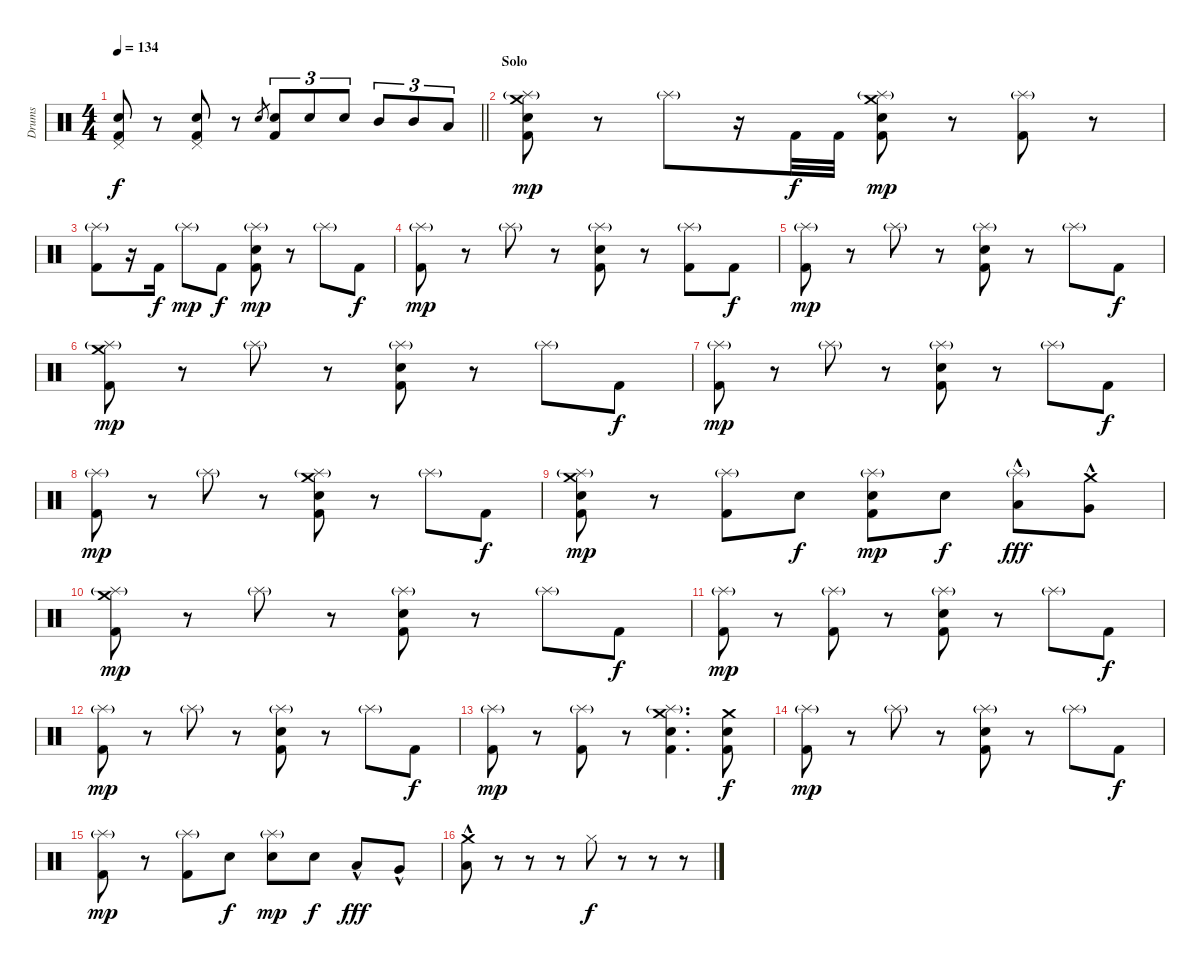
\track ("Drums" "Drums") {instrument percussion}
\staff {score}
\articulation defaults
\ts (4 4)
\tempo 134
\clef neutral
\barLineRight lightlight
\ks aminor
("Pedal Hi-Hat (hit)" "Snare (hit) 2" "Kick (hit) 2").8{dy f} r.8 ("Pedal Hi-Hat (hit)" "Snare (hit) 2" "Kick (hit) 2").8 r.8 "Snare (hit) 2".8{gr} ("Snare (hit) 2" "Kick (hit) 2").8{tu (3 2)} "Snare (hit) 2".8{tu (3 2)} "Snare (hit) 2".8{tu (3 2)} "Mid Tom (hit)".8{tu (3 2)} "Mid Tom (hit)".8{tu (3 2)} "Low Tom (hit)".8{tu (3 2)} |
\section ("" "Solo")
("Crash medium (hit)" "Splash (hit)"{g} "Snare (hit) 2" "Kick (hit) 2").8{dy mp} r.8 "Splash (hit)"{g}.8 r.16 "Kick (hit) 2".32{dy f} "Kick (hit) 2".32 ("Crash medium (hit)" "Splash (hit)"{g} "Snare (hit) 2" "Kick (hit) 2").8{dy mp} r.8 ("Splash (hit)"{g} "Kick (hit) 2").8 r.8 |
("Splash (hit)"{g} "Kick (hit) 2").8 r.16 "Kick (hit) 2".16{dy f} "Splash (hit)"{g}.8{dy mp} "Kick (hit) 2".8{dy f} ("Splash (hit)"{g} "Snare (hit) 2" "Kick (hit) 2").8{dy mp} r.8 "Splash (hit)"{g}.8 "Kick (hit) 2".8{dy f} |
("Splash (hit)"{g} "Kick (hit) 2").8{dy mp} r.8 "Splash (hit)"{g}.8 r.8 ("Splash (hit)"{g} "Snare (hit) 2" "Kick (hit) 2").8 r.8 ("Splash (hit)"{g} "Kick (hit) 2").8 "Kick (hit) 2".8{dy f} |
("Splash (hit)"{g} "Kick (hit) 2").8{dy mp} r.8 "Splash (hit)"{g}.8 r.8 ("Splash (hit)"{g} "Snare (hit) 2" "Kick (hit) 2").8 r.8 "Splash (hit)"{g}.8 "Kick (hit) 2".8{dy f} |
("Crash medium (hit)" "Splash (hit)"{g} "Kick (hit) 2").8{dy mp} r.8 "Splash (hit)"{g}.8 r.8 ("Splash (hit)"{g} "Snare (hit) 2" "Kick (hit) 2").8 r.8 "Splash (hit)"{g}.8 "Kick (hit) 2".8{dy f} |
("Splash (hit)"{g} "Kick (hit) 2").8{dy mp} r.8 "Splash (hit)"{g}.8 r.8 ("Splash (hit)"{g} "Snare (hit) 2" "Kick (hit) 2").8 r.8 "Splash (hit)"{g}.8 "Kick (hit) 2".8{dy f} |
("Splash (hit)"{g} "Kick (hit) 2").8{dy mp} r.8 "Splash (hit)"{g}.8 r.8 ("Crash medium (hit)" "Splash (hit)"{g} "Snare (hit) 2" "Kick (hit) 2").8 r.8 "Splash (hit)"{g}.8 "Kick (hit) 2".8{dy f} |
("Crash medium (hit)" "Splash (hit)"{g} "Snare (hit) 2" "Kick (hit) 2").8{dy mp} r.8 ("Splash (hit)"{g} "Kick (hit) 2").8 "Snare (hit) 2".8{dy f} ("Splash (hit)"{g} "Snare (hit) 2" "Kick (hit) 2").8{dy mp} "Snare (hit) 2".8{dy f} ("Splash (hit)"{g} "Low Tom (hit)"{hac}).8{dy fff} ("Crash medium (hit)" "Very Low Tom (hit)"{hac}).8 |
("Crash medium (hit)" "Splash (hit)"{g} "Kick (hit) 2").8{dy mp} r.8 "Splash (hit)"{g}.8 r.8 ("Splash (hit)"{g} "Snare (hit) 2" "Kick (hit) 2").8 r.8 "Splash (hit)"{g}.8 "Kick (hit) 2".8{dy f} |
("Splash (hit)"{g} "Kick (hit) 2").8{dy mp} r.8 ("Splash (hit)"{g} "Kick (hit) 2").8 r.8 ("Splash (hit)"{g} "Snare (hit) 2" "Kick (hit) 2").8 r.8 "Splash (hit)"{g}.8 "Kick (hit) 2".8{dy f} |
("Splash (hit)"{g} "Kick (hit) 2").8{dy mp} r.8 "Splash (hit)"{g}.8 r.8 ("Splash (hit)"{g} "Snare (hit) 2" "Kick (hit) 2").8 r.8 "Splash (hit)"{g}.8 "Kick (hit) 2".8{dy f} |
("Splash (hit)"{g} "Kick (hit) 2").8{dy mp} r.8 ("Splash (hit)"{g} "Kick (hit) 2").8 r.8 ("Crash medium (hit)" "Splash (hit)"{g} "Snare (hit) 2" "Kick (hit) 2").4{d} ("Crash medium (hit)" "Snare (hit) 2" "Kick (hit) 2").8{dy f} |
("Splash (hit)"{g} "Kick (hit) 2").8{dy mp} r.8 "Splash (hit)"{g}.8 r.8 ("Splash (hit)"{g} "Snare (hit) 2" "Kick (hit) 2").8 r.8 "Splash (hit)"{g}.8 "Kick (hit) 2".8{dy f} |
("Splash (hit)"{g} "Kick (hit) 2").8{dy mp} r.8 ("Splash (hit)"{g} "Kick (hit) 2").8 "Snare (hit) 2".8{dy f} ("Splash (hit)"{g} "Snare (hit) 2").8{dy mp} "Snare (hit) 2".8{dy f} "Low Tom (hit)"{hac}.8{dy fff} "Very Low Tom (hit)"{hac}.8 |
("Crash medium (hit)" "Low Floor Tom (hit)"{hac}).8 r.8 r.8 r.8 "Hi-Hat (closed)".8{dy f} r.8 r.8 r.8
